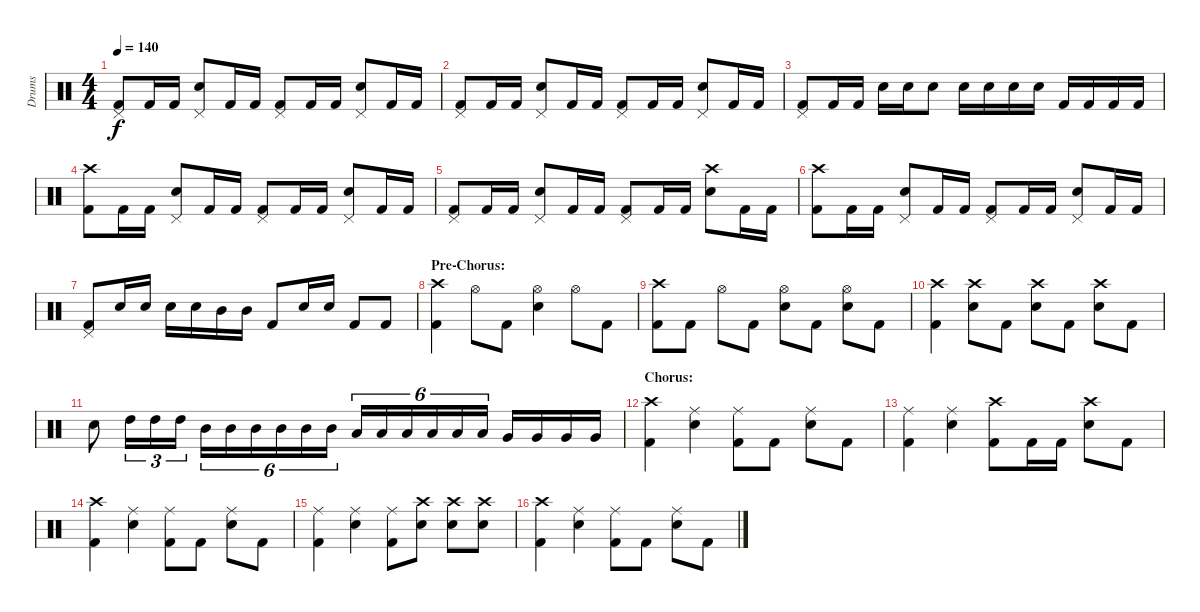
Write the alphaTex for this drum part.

\track ("Drums" "Drums") {instrument percussion}
\staff {score}
\articulation defaults
\ts (4 4)
\tempo 140
\clef neutral
\ks c
("Pedal Hi-Hat (hit)" "Kick (hit) 2").8{dy f} "Kick (hit) 2".16 "Kick (hit) 2".16 ("Pedal Hi-Hat (hit)" "Electric Snare (hit)").8 "Kick (hit) 2".16 "Kick (hit) 2".16 ("Pedal Hi-Hat (hit)" "Kick (hit) 2").8 "Kick (hit) 2".16 "Kick (hit) 2".16 ("Pedal Hi-Hat (hit)" "Electric Snare (hit)").8 "Kick (hit) 2".16 "Kick (hit) 2".16 |
("Pedal Hi-Hat (hit)" "Kick (hit) 2").8 "Kick (hit) 2".16 "Kick (hit) 2".16 ("Pedal Hi-Hat (hit)" "Electric Snare (hit)").8 "Kick (hit) 2".16 "Kick (hit) 2".16 ("Pedal Hi-Hat (hit)" "Kick (hit) 2").8 "Kick (hit) 2".16 "Kick (hit) 2".16 ("Pedal Hi-Hat (hit)" "Electric Snare (hit)").8 "Kick (hit) 2".16 "Kick (hit) 2".16 |
("Pedal Hi-Hat (hit)" "Kick (hit) 2").8 "Kick (hit) 2".16 "Kick (hit) 2".16 "Electric Snare (hit)".16 "Electric Snare (hit)".16 "Electric Snare (hit)".8 "Electric Snare (hit)".16 "Electric Snare (hit)".16 "Electric Snare (hit)".16 "Electric Snare (hit)".16 "Kick (hit) 2".16 "Kick (hit) 2".16 "Kick (hit) 2".16 "Kick (hit) 2".16 |
("Crash high (hit)" "Kick (hit) 2").8 "Kick (hit) 2".16 "Kick (hit) 2".16 ("Pedal Hi-Hat (hit)" "Electric Snare (hit)").8 "Kick (hit) 2".16 "Kick (hit) 2".16 ("Pedal Hi-Hat (hit)" "Kick (hit) 2").8 "Kick (hit) 2".16 "Kick (hit) 2".16 ("Pedal Hi-Hat (hit)" "Electric Snare (hit)").8 "Kick (hit) 2".16 "Kick (hit) 2".16 |
("Pedal Hi-Hat (hit)" "Kick (hit) 2").8 "Kick (hit) 2".16 "Kick (hit) 2".16 ("Pedal Hi-Hat (hit)" "Electric Snare (hit)").8 "Kick (hit) 2".16 "Kick (hit) 2".16 ("Pedal Hi-Hat (hit)" "Kick (hit) 2").8 "Kick (hit) 2".16 "Kick (hit) 2".16 ("Crash high (hit)" "Electric Snare (hit)").8 "Kick (hit) 2".16 "Kick (hit) 2".16 |
("Crash high (hit)" "Kick (hit) 2").8 "Kick (hit) 2".16 "Kick (hit) 2".16 ("Pedal Hi-Hat (hit)" "Electric Snare (hit)").8 "Kick (hit) 2".16 "Kick (hit) 2".16 ("Pedal Hi-Hat (hit)" "Kick (hit) 2").8 "Kick (hit) 2".16 "Kick (hit) 2".16 ("Pedal Hi-Hat (hit)" "Electric Snare (hit)").8 "Kick (hit) 2".16 "Kick (hit) 2".16 |
("Pedal Hi-Hat (hit)" "Kick (hit) 2").8 "Electric Snare (hit)".16 "Electric Snare (hit)".16 "Electric Snare (hit)".16 "Electric Snare (hit)".16 "Mid Tom (hit)".16 "Mid Tom (hit)".16 "Kick (hit) 2".8 "Electric Snare (hit)".16 "Electric Snare (hit)".16 "Kick (hit) 2".8 "Kick (hit) 2".8 |
\section ("" "Pre-Chorus:")
("Crash high (hit)" "Kick (hit) 2").4 "Hi-Hat (open)".8 "Kick (hit) 2".8 ("Hi-Hat (open)" "Electric Snare (hit)").4 "Hi-Hat (open)".8 "Kick (hit) 2".8 |
("Crash high (hit)" "Kick (hit) 2").8 "Kick (hit) 2".8 "Hi-Hat (open)".8 "Kick (hit) 2".8 ("Hi-Hat (open)" "Electric Snare (hit)").8 "Kick (hit) 2".8 ("Hi-Hat (open)" "Electric Snare (hit)").8 "Kick (hit) 2".8 |
("Crash high (hit)" "Kick (hit) 2").4 ("Crash high (hit)" "Electric Snare (hit)").8 "Kick (hit) 2".8 ("Crash high (hit)" "Electric Snare (hit)").8 "Kick (hit) 2".8 ("Crash high (hit)" "Electric Snare (hit)").8 "Kick (hit) 2".8 |
"Electric Snare (hit)".8 "High Tom (hit)".16{tu (3 2)} "High Tom (hit)".16{tu (3 2)} "High Tom (hit)".16{tu (3 2)} "Mid Tom (hit)".16{tu (6 4)} "Mid Tom (hit)".16{tu (6 4)} "Mid Tom (hit)".16{tu (6 4)} "Mid Tom (hit)".16{tu (6 4)} "Mid Tom (hit)".16{tu (6 4)} "Mid Tom (hit)".16{tu (6 4)} "Low Tom (hit)".16{tu (6 4)} "Low Tom (hit)".16{tu (6 4)} "Low Tom (hit)".16{tu (6 4)} "Low Tom (hit)".16{tu (6 4)} "Low Tom (hit)".16{tu (6 4)} "Low Tom (hit)".16{tu (6 4)} "Very Low Tom (hit)".16 "Very Low Tom (hit)".16 "Very Low Tom (hit)".16 "Very Low Tom (hit)".16 |
\section ("" "Chorus:")
("Crash high (hit)" "Kick (hit) 2").4 ("Ride (middle)" "Electric Snare (hit)").4 ("Ride (middle)" "Kick (hit) 2").8 "Kick (hit) 2".8 ("Ride (middle)" "Electric Snare (hit)").8 "Kick (hit) 2".8 |
("Ride (middle)" "Kick (hit) 2").4 ("Ride (middle)" "Electric Snare (hit)").4 ("Crash high (hit)" "Kick (hit) 2").8 "Kick (hit) 2".16 "Kick (hit) 2".16 ("Crash high (hit)" "Electric Snare (hit)").8 "Kick (hit) 2".8 |
("Crash high (hit)" "Kick (hit) 2").4 ("Ride (middle)" "Electric Snare (hit)").4 ("Ride (middle)" "Kick (hit) 2").8 "Kick (hit) 2".8 ("Ride (middle)" "Electric Snare (hit)").8 "Kick (hit) 2".8 |
("Ride (middle)" "Kick (hit) 2").4 ("Ride (middle)" "Electric Snare (hit)").4 ("Ride (middle)" "Kick (hit) 2").8 ("Crash high (hit)" "Electric Snare (hit)").8 ("Crash high (hit)" "Electric Snare (hit)").8 ("Crash high (hit)" "Electric Snare (hit)").8 |
("Crash high (hit)" "Kick (hit) 2").4 ("Ride (middle)" "Electric Snare (hit)").4 ("Ride (middle)" "Kick (hit) 2").8 "Kick (hit) 2".8 ("Ride (middle)" "Electric Snare (hit)").8 "Kick (hit) 2".8
